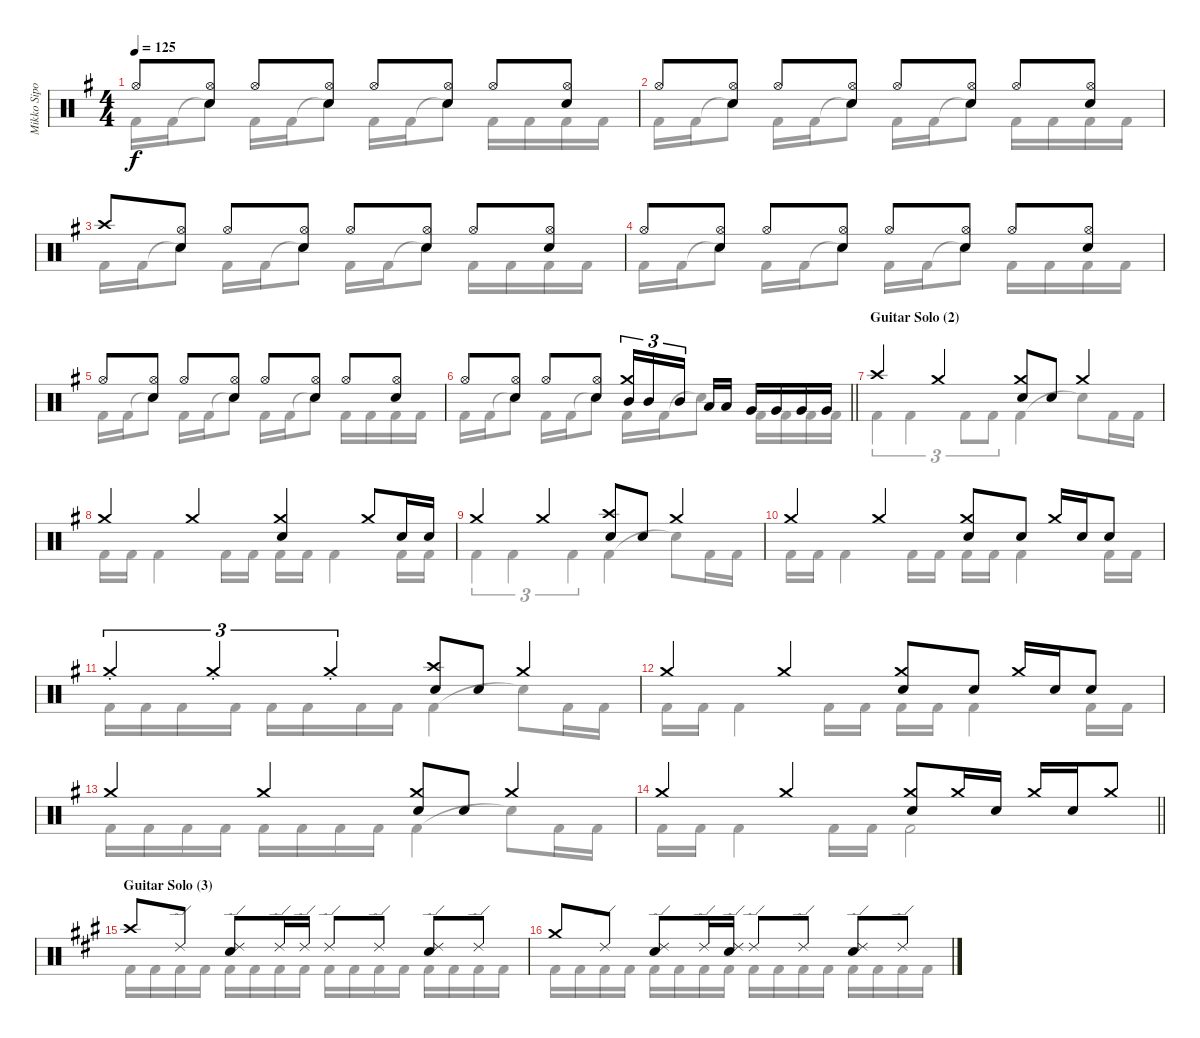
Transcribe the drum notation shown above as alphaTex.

\track ("Mikko Sipola (drums)" "Mikko Sipo") {instrument percussion}
\staff {score}
\articulation defaults
\voice
\ts (4 4)
\tempo 125
\clef neutral
\ks eminor "Hi-Hat (open)".8{dy f}
("Hi-Hat (open)" "Electric Snare (hit)").8 "Hi-Hat (open)".8 ("Hi-Hat (open)" "Electric Snare (hit)").8 "Hi-Hat (open)".8 ("Hi-Hat (open)" "Electric Snare (hit)").8 "Hi-Hat (open)".8 ("Hi-Hat (open)" "Electric Snare (hit)").8 |
"Hi-Hat (open)".8 ("Hi-Hat (open)" "Electric Snare (hit)").8 "Hi-Hat (open)".8 ("Hi-Hat (open)" "Electric Snare (hit)").8 "Hi-Hat (open)".8 ("Hi-Hat (open)" "Electric Snare (hit)").8 "Hi-Hat (open)".8 ("Hi-Hat (open)" "Electric Snare (hit)").8 |
"Crash high (hit)".8 ("Hi-Hat (open)" "Electric Snare (hit)").8 "Hi-Hat (open)".8 ("Hi-Hat (open)" "Electric Snare (hit)").8 "Hi-Hat (open)".8 ("Hi-Hat (open)" "Electric Snare (hit)").8 "Hi-Hat (open)".8 ("Hi-Hat (open)" "Electric Snare (hit)").8 |
"Hi-Hat (open)".8 ("Hi-Hat (open)" "Electric Snare (hit)").8 "Hi-Hat (open)".8 ("Hi-Hat (open)" "Electric Snare (hit)").8 "Hi-Hat (open)".8 ("Hi-Hat (open)" "Electric Snare (hit)").8 "Hi-Hat (open)".8 ("Hi-Hat (open)" "Electric Snare (hit)").8 |
"Hi-Hat (open)".8 ("Hi-Hat (open)" "Electric Snare (hit)").8 "Hi-Hat (open)".8 ("Hi-Hat (open)" "Electric Snare (hit)").8 "Hi-Hat (open)".8 ("Hi-Hat (open)" "Electric Snare (hit)").8 "Hi-Hat (open)".8 ("Hi-Hat (open)" "Electric Snare (hit)").8 |
\barLineRight lightlight "Hi-Hat (open)".8
("Hi-Hat (open)" "Electric Snare (hit)").8 "Hi-Hat (open)".8 ("Hi-Hat (open)" "Electric Snare (hit)").8 ("Crash medium (hit)" "Mid Tom (hit)").16{tu (3 2)} "Mid Tom (hit)".16{tu (3 2)} "Mid Tom (hit)".16{tu (3 2) beam splitsecondary} "Low Tom (hit)".16 "Low Tom (hit)".16 "Very Low Tom (hit)".16 "Very Low Tom (hit)".16 "Very Low Tom (hit)".16 "Very Low Tom (hit)".16 |
\section ("" "Guitar Solo (2)")
"Crash high (hit)".4 "Crash medium (hit)".4 ("Crash medium (hit)" "Electric Snare (hit)").8 "Electric Snare (hit)".8 "Crash medium (hit)".4 |
"Crash medium (hit)".4 "Crash medium (hit)".4 ("Crash medium (hit)" "Electric Snare (hit)").4 "Crash medium (hit)".8 "Electric Snare (hit)".16 "Electric Snare (hit)".16 |
"Crash medium (hit)".4 "Crash medium (hit)".4 ("Crash high (hit)" "Electric Snare (hit)").8 "Electric Snare (hit)".8 "Crash medium (hit)".4 |
"Crash medium (hit)".4 "Crash medium (hit)".4 ("Crash medium (hit)" "Electric Snare (hit)").8 "Electric Snare (hit)".8 "Crash medium (hit)".16 "Electric Snare (hit)".16 "Electric Snare (hit)".8 |
"Crash medium (hit)"{st}.4{tu (3 2)} "Crash medium (hit)"{st}.4{tu (3 2)} "Crash medium (hit)"{st}.4{tu (3 2)} ("Crash high (hit)" "Electric Snare (hit)").8 "Electric Snare (hit)".8 "Crash medium (hit)".4 |
"Crash medium (hit)".4 "Crash medium (hit)".4 ("Crash medium (hit)" "Electric Snare (hit)").8 "Electric Snare (hit)".8 "Crash medium (hit)".16 "Electric Snare (hit)".16 "Electric Snare (hit)".8 |
"Crash medium (hit)".4 "Crash medium (hit)".4 ("Crash medium (hit)" "Electric Snare (hit)").8 "Electric Snare (hit)".8 "Crash medium (hit)".4 |
\barLineRight lightlight "Crash medium (hit)".4 "Crash medium (hit)".4
("Crash medium (hit)" "Electric Snare (hit)").8 "Crash medium (hit)".16 "Electric Snare (hit)".16 "Crash medium (hit)".16 "Electric Snare (hit)".16 "Crash medium (hit)".8 |
\section ("" "Guitar Solo (3)")
\ks f#minor "Crash high (hit)".8 "Ride (edge) 2".8
("Ride (edge) 2" "Electric Snare (hit)").8 "Ride (edge) 2".16 "Ride (edge) 2".16 "Ride (edge) 2".8 "Ride (edge) 2".8 ("Ride (edge) 2" "Electric Snare (hit)").8 "Ride (edge) 2".8 |
"Crash medium (hit)".8 "Ride (edge) 2".8 ("Ride (edge) 2" "Electric Snare (hit)").8 "Ride (edge) 2".16 ("Ride (edge) 2" "Electric Snare (hit)").16 "Ride (edge) 2".8 "Ride (edge) 2".8 ("Ride (edge) 2" "Electric Snare (hit)").8 "Ride (edge) 2".8
\voice
\clef neutral
\ottava regular
\simile none
\ks eminor "Kick (hit) 2".16{dy f} "Kick (hit) 2".16 "Snare (hit)"{t}.8 "Kick (hit) 2".16 "Kick (hit) 2".16 "Snare (hit)"{t}.8 "Kick (hit) 2".16 "Kick (hit) 2".16 "Snare (hit)"{t}.8 "Kick (hit) 2".16 "Kick (hit) 2".16 "Kick (hit) 2".16 "Kick (hit) 2".16
|
"Kick (hit) 2".16 "Kick (hit) 2".16 "Snare (hit)"{t}.8 "Kick (hit) 2".16 "Kick (hit) 2".16 "Snare (hit)"{t}.8 "Kick (hit) 2".16 "Kick (hit) 2".16 "Snare (hit)"{t}.8 "Kick (hit) 2".16 "Kick (hit) 2".16 "Kick (hit) 2".16 "Kick (hit) 2".16 |
"Kick (hit) 2".16 "Kick (hit) 2".16 "Snare (hit)"{t}.8 "Kick (hit) 2".16 "Kick (hit) 2".16 "Snare (hit)"{t}.8 "Kick (hit) 2".16 "Kick (hit) 2".16 "Snare (hit)"{t}.8 "Kick (hit) 2".16 "Kick (hit) 2".16 "Kick (hit) 2".16 "Kick (hit) 2".16 |
"Kick (hit) 2".16 "Kick (hit) 2".16 "Snare (hit)"{t}.8 "Kick (hit) 2".16 "Kick (hit) 2".16 "Snare (hit)"{t}.8 "Kick (hit) 2".16 "Kick (hit) 2".16 "Snare (hit)"{t}.8 "Kick (hit) 2".16 "Kick (hit) 2".16 "Kick (hit) 2".16 "Kick (hit) 2".16 |
"Kick (hit) 2".16 "Kick (hit) 2".16 "Snare (hit)"{t}.8 "Kick (hit) 2".16 "Kick (hit) 2".16 "Snare (hit)"{t}.8 "Kick (hit) 2".16 "Kick (hit) 2".16 "Snare (hit)"{t}.8 "Kick (hit) 2".16 "Kick (hit) 2".16 "Kick (hit) 2".16 "Kick (hit) 2".16 |
\barLineRight lightlight "Kick (hit) 2".16 "Kick (hit) 2".16 "Snare (hit)"{t}.8 "Kick (hit) 2".16 "Kick (hit) 2".16 "Snare (hit)"{t}.8 "Kick (hit) 2".16 "Kick (hit) 2".16 "Snare (hit)"{t}.8 "Kick (hit) 2".16 "Kick (hit) 2".16 "Kick (hit) 2".16 "Kick (hit) 2".16
|
"Kick (hit) 2".4{tu (3 2)} "Kick (hit) 2".4{tu (3 2)} "Kick (hit) 2".8{tu (3 2)} "Kick (hit) 2".8{tu (3 2)} "Kick (hit) 2".4 "Snare (hit)"{t}.8 "Kick (hit) 2".16 "Kick (hit) 2".16 |
"Kick (hit) 2".16 "Kick (hit) 2".16 "Kick (hit) 2".4 "Kick (hit) 2".16 "Kick (hit) 2".16 "Kick (hit) 2".16 "Kick (hit) 2".16 "Kick (hit) 2".4 "Kick (hit) 2".16 "Kick (hit) 2".16 |
"Kick (hit) 2".4{tu (3 2)} "Kick (hit) 2".4{tu (3 2)} "Kick (hit) 2".4{tu (3 2)} "Kick (hit) 2".4 "Snare (hit)"{t}.8 "Kick (hit) 2".16 "Kick (hit) 2".16 |
"Kick (hit) 2".16 "Kick (hit) 2".16 "Kick (hit) 2".4 "Kick (hit) 2".16 "Kick (hit) 2".16 "Kick (hit) 2".16 "Kick (hit) 2".16 "Kick (hit) 2".4 "Kick (hit) 2".16 "Kick (hit) 2".16 |
"Kick (hit) 2".16 "Kick (hit) 2".16 "Kick (hit) 2".16 "Kick (hit) 2".16 "Kick (hit) 2".16 "Kick (hit) 2".16 "Kick (hit) 2".16 "Kick (hit) 2".16 "Kick (hit) 2".4 "Snare (hit)"{t}.8 "Kick (hit) 2".16 "Kick (hit) 2".16 |
"Kick (hit) 2".16 "Kick (hit) 2".16 "Kick (hit) 2".4 "Kick (hit) 2".16 "Kick (hit) 2".16 "Kick (hit) 2".16 "Kick (hit) 2".16 "Kick (hit) 2".4 "Kick (hit) 2".16 "Kick (hit) 2".16 |
"Kick (hit) 2".16 "Kick (hit) 2".16 "Kick (hit) 2".16 "Kick (hit) 2".16 "Kick (hit) 2".16 "Kick (hit) 2".16 "Kick (hit) 2".16 "Kick (hit) 2".16 "Kick (hit) 2".4 "Snare (hit)"{t}.8 "Kick (hit) 2".16 "Kick (hit) 2".16 |
\barLineRight lightlight "Kick (hit) 2".16 "Kick (hit) 2".16 "Kick (hit) 2".4 "Kick (hit) 2".16 "Kick (hit) 2".16 "Kick (hit) 2".2
|
\ks f#minor "Kick (hit) 2".16 "Kick (hit) 2".16 "Kick (hit) 2".16 "Kick (hit) 2".16 "Kick (hit) 2".16 "Kick (hit) 2".16 "Kick (hit) 2".16 "Kick (hit) 2".16 "Kick (hit) 2".16 "Kick (hit) 2".16 "Kick (hit) 2".16 "Kick (hit) 2".16 "Kick (hit) 2".16 "Kick (hit) 2".16 "Kick (hit) 2".16 "Kick (hit) 2".16
|
"Kick (hit) 2".16 "Kick (hit) 2".16 "Kick (hit) 2".16 "Kick (hit) 2".16 "Kick (hit) 2".16 "Kick (hit) 2".16 "Kick (hit) 2".16 "Kick (hit) 2".16 "Kick (hit) 2".16 "Kick (hit) 2".16 "Kick (hit) 2".16 "Kick (hit) 2".16 "Kick (hit) 2".16 "Kick (hit) 2".16 "Kick (hit) 2".16 "Kick (hit) 2".16
